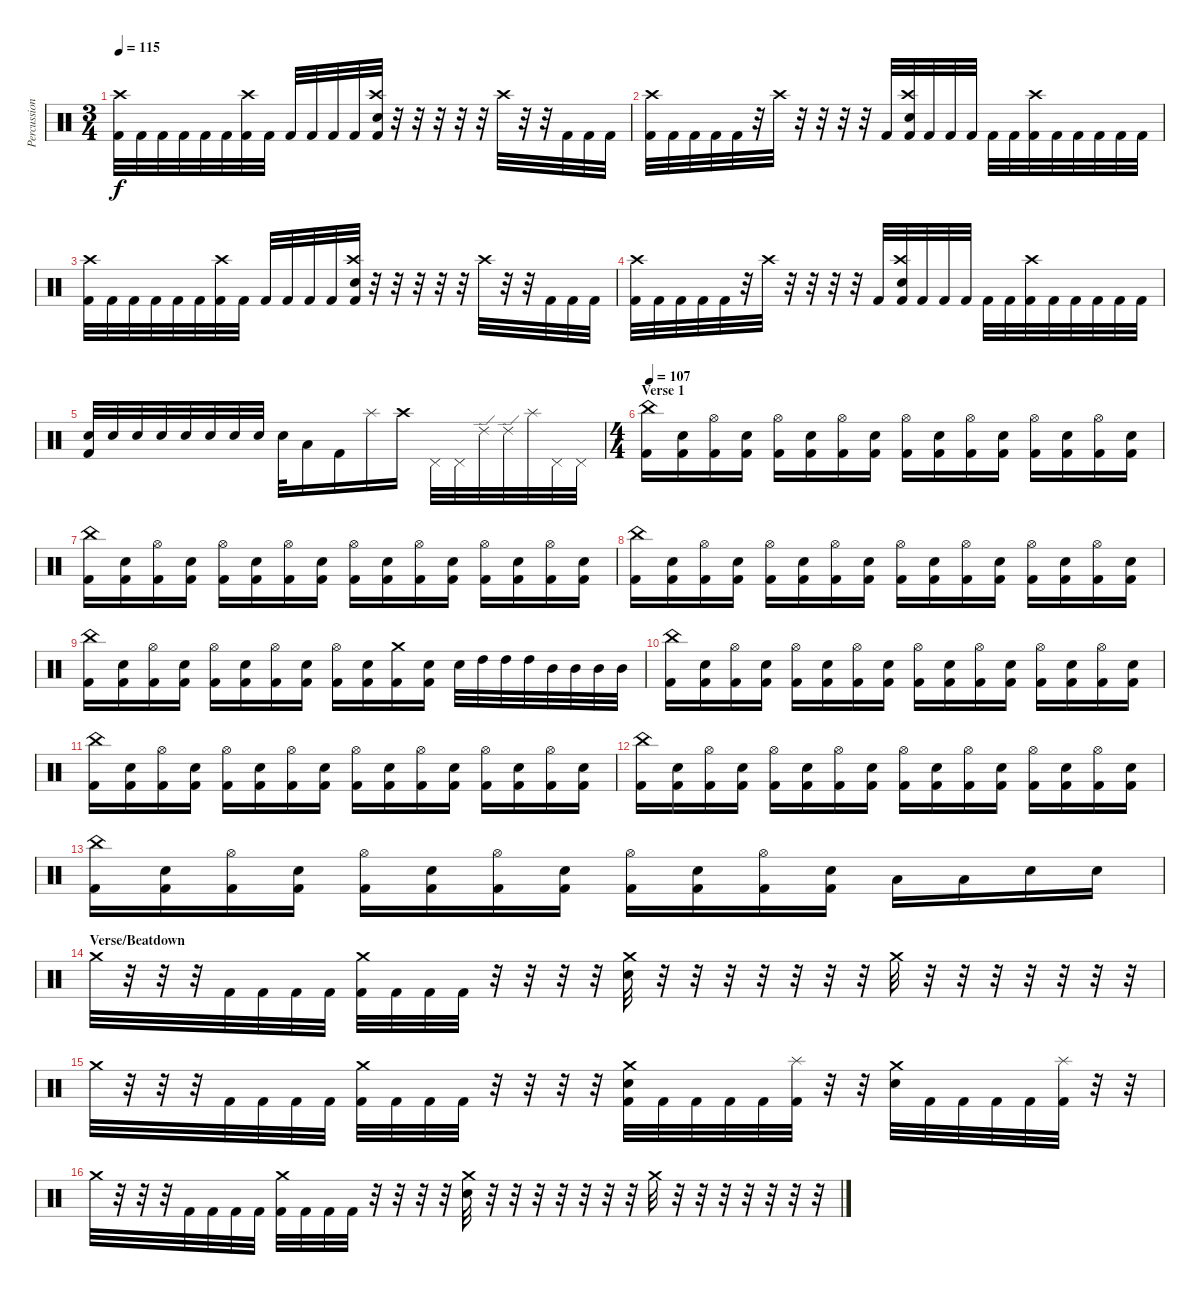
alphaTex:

\track ("Percussion" "Percussion") {instrument percussion}
\staff {score}
\articulation defaults
\ts (3 4)
\tempo 115
\clef neutral
\ks c
("Kick (hit) 2" "Crash high (hit)").32{dy f} "Kick (hit) 2".32 "Kick (hit) 2".32 "Kick (hit) 2".32 "Kick (hit) 2".32 "Kick (hit) 2".32 ("Kick (hit) 2" "Crash high (hit)").32 "Kick (hit) 2".32 "Kick (hit) 2".32 "Kick (hit) 2".32 "Kick (hit) 2".32 "Kick (hit) 2".32 ("Kick (hit) 2" "Electric Snare (hit)" "Crash high (hit)").32 r.32 r.32 r.32 r.32 r.32 "Crash high (hit)".32 r.32 r.32 "Kick (hit) 2".32 "Kick (hit) 2".32 "Kick (hit) 2".32 |
("Kick (hit) 2" "Crash high (hit)").32 "Kick (hit) 2".32 "Kick (hit) 2".32 "Kick (hit) 2".32 "Kick (hit) 2".32 r.32 "Crash high (hit)".32 r.32 r.32 r.32 r.32 "Kick (hit) 2".32 ("Kick (hit) 2" "Electric Snare (hit)" "Crash high (hit)").32 "Kick (hit) 2".32 "Kick (hit) 2".32 "Kick (hit) 2".32 "Kick (hit) 2".32 "Kick (hit) 2".32 ("Kick (hit) 2" "Crash high (hit)").32 "Kick (hit) 2".32 "Kick (hit) 2".32 "Kick (hit) 2".32 "Kick (hit) 2".32 "Kick (hit) 2".32 |
("Kick (hit) 2" "Crash high (hit)").32 "Kick (hit) 2".32 "Kick (hit) 2".32 "Kick (hit) 2".32 "Kick (hit) 2".32 "Kick (hit) 2".32 ("Kick (hit) 2" "Crash high (hit)").32 "Kick (hit) 2".32 "Kick (hit) 2".32 "Kick (hit) 2".32 "Kick (hit) 2".32 "Kick (hit) 2".32 ("Kick (hit) 2" "Electric Snare (hit)" "Crash high (hit)").32 r.32 r.32 r.32 r.32 r.32 "Crash high (hit)".32 r.32 r.32 "Kick (hit) 2".32 "Kick (hit) 2".32 "Kick (hit) 2".32 |
("Kick (hit) 2" "Crash high (hit)").32 "Kick (hit) 2".32 "Kick (hit) 2".32 "Kick (hit) 2".32 "Kick (hit) 2".32 r.32 "Crash high (hit)".32 r.32 r.32 r.32 r.32 "Kick (hit) 2".32 ("Kick (hit) 2" "Electric Snare (hit)" "Crash high (hit)").32 "Kick (hit) 2".32 "Kick (hit) 2".32 "Kick (hit) 2".32 "Kick (hit) 2".32 "Kick (hit) 2".32 ("Kick (hit) 2" "Crash high (hit)").32 "Kick (hit) 2".32 "Kick (hit) 2".32 "Kick (hit) 2".32 "Kick (hit) 2".32 "Kick (hit) 2".32 |
("Kick (hit) 2" "Electric Snare (hit)").32 "Electric Snare (hit)".32 "Electric Snare (hit)".32 "Electric Snare (hit)".32 "Electric Snare (hit)".32 "Electric Snare (hit)".32 "Electric Snare (hit)".32 "Electric Snare (hit)".32 "Electric Snare (hit)".32 "Low Tom (hit)".16 "Kick (hit) 2".16 "Splash (hit)".16 "Crash high (hit)".16 "Pedal Hi-Hat (hit)".32 "Pedal Hi-Hat (hit)".32 "Ride (edge) 2".32 "Ride (edge) 2".32 "Splash (hit)".32 "Pedal Hi-Hat (hit)".32 "Pedal Hi-Hat (hit)".32 |
\ts (4 4)
\section ("" "Verse 1")
\tempo 107
("Kick (hit) 2" "China (hit)").16 ("Kick (hit) 2" "Electric Snare (hit)").16 ("Kick (hit) 2" "Hi-Hat (open)").16 ("Kick (hit) 2" "Electric Snare (hit)").16 ("Kick (hit) 2" "Hi-Hat (open)").16 ("Kick (hit) 2" "Electric Snare (hit)").16 ("Kick (hit) 2" "Hi-Hat (open)").16 ("Kick (hit) 2" "Electric Snare (hit)").16 ("Kick (hit) 2" "Hi-Hat (open)").16 ("Kick (hit) 2" "Electric Snare (hit)").16 ("Kick (hit) 2" "Hi-Hat (open)").16 ("Kick (hit) 2" "Electric Snare (hit)").16 ("Kick (hit) 2" "Hi-Hat (open)").16 ("Kick (hit) 2" "Electric Snare (hit)").16 ("Kick (hit) 2" "Hi-Hat (open)").16 ("Kick (hit) 2" "Electric Snare (hit)").16 |
("Kick (hit) 2" "China (hit)").16 ("Kick (hit) 2" "Electric Snare (hit)").16 ("Kick (hit) 2" "Hi-Hat (open)").16 ("Kick (hit) 2" "Electric Snare (hit)").16 ("Kick (hit) 2" "Hi-Hat (open)").16 ("Kick (hit) 2" "Electric Snare (hit)").16 ("Kick (hit) 2" "Hi-Hat (open)").16 ("Kick (hit) 2" "Electric Snare (hit)").16 ("Kick (hit) 2" "Hi-Hat (open)").16 ("Kick (hit) 2" "Electric Snare (hit)").16 ("Kick (hit) 2" "Hi-Hat (open)").16 ("Kick (hit) 2" "Electric Snare (hit)").16 ("Kick (hit) 2" "Hi-Hat (open)").16 ("Kick (hit) 2" "Electric Snare (hit)").16 ("Kick (hit) 2" "Hi-Hat (open)").16 ("Kick (hit) 2" "Electric Snare (hit)").16 |
("Kick (hit) 2" "China (hit)").16 ("Kick (hit) 2" "Electric Snare (hit)").16 ("Kick (hit) 2" "Hi-Hat (open)").16 ("Kick (hit) 2" "Electric Snare (hit)").16 ("Kick (hit) 2" "Hi-Hat (open)").16 ("Kick (hit) 2" "Electric Snare (hit)").16 ("Kick (hit) 2" "Hi-Hat (open)").16 ("Kick (hit) 2" "Electric Snare (hit)").16 ("Kick (hit) 2" "Hi-Hat (open)").16 ("Kick (hit) 2" "Electric Snare (hit)").16 ("Kick (hit) 2" "Hi-Hat (open)").16 ("Kick (hit) 2" "Electric Snare (hit)").16 ("Kick (hit) 2" "Hi-Hat (open)").16 ("Kick (hit) 2" "Electric Snare (hit)").16 ("Kick (hit) 2" "Hi-Hat (open)").16 ("Kick (hit) 2" "Electric Snare (hit)").16 |
("Kick (hit) 2" "China (hit)").16 ("Kick (hit) 2" "Electric Snare (hit)").16 ("Kick (hit) 2" "Hi-Hat (open)").16 ("Kick (hit) 2" "Electric Snare (hit)").16 ("Kick (hit) 2" "Hi-Hat (open)").16 ("Kick (hit) 2" "Electric Snare (hit)").16 ("Kick (hit) 2" "Hi-Hat (open)").16 ("Kick (hit) 2" "Electric Snare (hit)").16 ("Kick (hit) 2" "Hi-Hat (open)").16 ("Kick (hit) 2" "Electric Snare (hit)").16 ("Kick (hit) 2" "Crash medium (hit)").16 ("Kick (hit) 2" "Electric Snare (hit)").16 "Electric Snare (hit)".32 "High Tom (hit)".32 "High Tom (hit)".32 "High Tom (hit)".32 "Mid Tom (hit)".32 "Mid Tom (hit)".32 "Mid Tom (hit)".32 "Mid Tom (hit)".32 |
("Kick (hit) 2" "China (hit)").16 ("Kick (hit) 2" "Electric Snare (hit)").16 ("Kick (hit) 2" "Hi-Hat (open)").16 ("Kick (hit) 2" "Electric Snare (hit)").16 ("Kick (hit) 2" "Hi-Hat (open)").16 ("Kick (hit) 2" "Electric Snare (hit)").16 ("Kick (hit) 2" "Hi-Hat (open)").16 ("Kick (hit) 2" "Electric Snare (hit)").16 ("Kick (hit) 2" "Hi-Hat (open)").16 ("Kick (hit) 2" "Electric Snare (hit)").16 ("Kick (hit) 2" "Hi-Hat (open)").16 ("Kick (hit) 2" "Electric Snare (hit)").16 ("Kick (hit) 2" "Hi-Hat (open)").16 ("Kick (hit) 2" "Electric Snare (hit)").16 ("Kick (hit) 2" "Hi-Hat (open)").16 ("Kick (hit) 2" "Electric Snare (hit)").16 |
("Kick (hit) 2" "China (hit)").16 ("Kick (hit) 2" "Electric Snare (hit)").16 ("Kick (hit) 2" "Hi-Hat (open)").16 ("Kick (hit) 2" "Electric Snare (hit)").16 ("Kick (hit) 2" "Hi-Hat (open)").16 ("Kick (hit) 2" "Electric Snare (hit)").16 ("Kick (hit) 2" "Hi-Hat (open)").16 ("Kick (hit) 2" "Electric Snare (hit)").16 ("Kick (hit) 2" "Hi-Hat (open)").16 ("Kick (hit) 2" "Electric Snare (hit)").16 ("Kick (hit) 2" "Hi-Hat (open)").16 ("Kick (hit) 2" "Electric Snare (hit)").16 ("Kick (hit) 2" "Hi-Hat (open)").16 ("Kick (hit) 2" "Electric Snare (hit)").16 ("Kick (hit) 2" "Hi-Hat (open)").16 ("Kick (hit) 2" "Electric Snare (hit)").16 |
("Kick (hit) 2" "China (hit)").16 ("Kick (hit) 2" "Electric Snare (hit)").16 ("Kick (hit) 2" "Hi-Hat (open)").16 ("Kick (hit) 2" "Electric Snare (hit)").16 ("Kick (hit) 2" "Hi-Hat (open)").16 ("Kick (hit) 2" "Electric Snare (hit)").16 ("Kick (hit) 2" "Hi-Hat (open)").16 ("Kick (hit) 2" "Electric Snare (hit)").16 ("Kick (hit) 2" "Hi-Hat (open)").16 ("Kick (hit) 2" "Electric Snare (hit)").16 ("Kick (hit) 2" "Hi-Hat (open)").16 ("Kick (hit) 2" "Electric Snare (hit)").16 ("Kick (hit) 2" "Hi-Hat (open)").16 ("Kick (hit) 2" "Electric Snare (hit)").16 ("Kick (hit) 2" "Hi-Hat (open)").16 ("Kick (hit) 2" "Electric Snare (hit)").16 |
("Kick (hit) 2" "China (hit)").16 ("Kick (hit) 2" "Electric Snare (hit)").16 ("Kick (hit) 2" "Hi-Hat (open)").16 ("Kick (hit) 2" "Electric Snare (hit)").16 ("Kick (hit) 2" "Hi-Hat (open)").16 ("Kick (hit) 2" "Electric Snare (hit)").16 ("Kick (hit) 2" "Hi-Hat (open)").16 ("Kick (hit) 2" "Electric Snare (hit)").16 ("Kick (hit) 2" "Hi-Hat (open)").16 ("Kick (hit) 2" "Electric Snare (hit)").16 ("Kick (hit) 2" "Hi-Hat (open)").16 ("Kick (hit) 2" "Electric Snare (hit)").16 "Low Tom (hit)".16 "Low Floor Tom (hit)".16 "Electric Snare (hit)".16 "Electric Snare (hit)".16 |
\section ("" "Verse/Beatdown")
"Crash medium (hit)".32 r.32 r.32 r.32 "Kick (hit) 2".32 "Kick (hit) 2".32 "Kick (hit) 2".32 "Kick (hit) 2".32 ("Kick (hit) 2" "Crash medium (hit)").32 "Kick (hit) 2".32 "Kick (hit) 2".32 "Kick (hit) 2".32 r.32 r.32 r.32 r.32 ("Electric Snare (hit)" "Crash medium (hit)").32 r.32 r.32 r.32 r.32 r.32 r.32 r.32 "Crash medium (hit)".32 r.32 r.32 r.32 r.32 r.32 r.32 r.32 |
"Crash medium (hit)".32 r.32 r.32 r.32 "Kick (hit) 2".32 "Kick (hit) 2".32 "Kick (hit) 2".32 "Kick (hit) 2".32 ("Kick (hit) 2" "Crash medium (hit)").32 "Kick (hit) 2".32 "Kick (hit) 2".32 "Kick (hit) 2".32 r.32 r.32 r.32 r.32 ("Kick (hit) 2" "Electric Snare (hit)" "Crash medium (hit)").32 "Kick (hit) 2".32 "Kick (hit) 2".32 "Kick (hit) 2".32 "Kick (hit) 2".32 ("Kick (hit) 2" "Splash (hit)").32 r.32 r.32 ("Electric Snare (hit)" "Crash medium (hit)").32 "Kick (hit) 2".32 "Kick (hit) 2".32 "Kick (hit) 2".32 "Kick (hit) 2".32 ("Kick (hit) 2" "Splash (hit)").32 r.32 r.32 |
"Crash medium (hit)".32 r.32 r.32 r.32 "Kick (hit) 2".32 "Kick (hit) 2".32 "Kick (hit) 2".32 "Kick (hit) 2".32 ("Kick (hit) 2" "Crash medium (hit)").32 "Kick (hit) 2".32 "Kick (hit) 2".32 "Kick (hit) 2".32 r.32 r.32 r.32 r.32 ("Electric Snare (hit)" "Crash medium (hit)").32 r.32 r.32 r.32 r.32 r.32 r.32 r.32 "Crash medium (hit)".32 r.32 r.32 r.32 r.32 r.32 r.32 r.32
